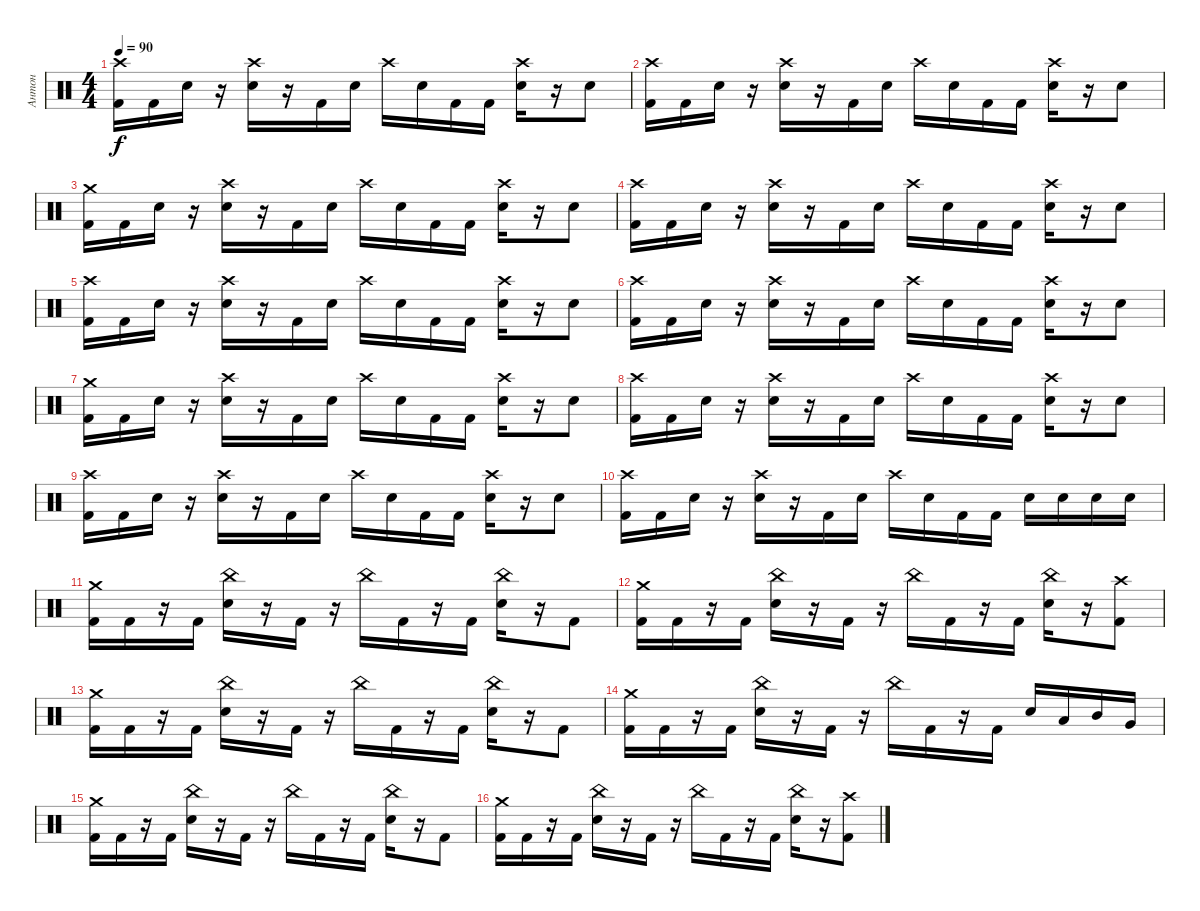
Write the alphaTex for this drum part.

\track ("Антон" "Антон") {instrument percussion}
\staff {score}
\articulation defaults
\ts (4 4)
\tempo 90
\clef neutral
\ks c
("Crash high (hit)" "Kick (hit) 2").16{dy f} "Kick (hit) 2".16 "Electric Snare (hit)".16 r.16 ("Crash high (hit)" "Electric Snare (hit)").16 r.16 "Kick (hit) 2".16 "Electric Snare (hit)".16 "Crash high (hit)".16 "Electric Snare (hit)".16 "Kick (hit) 2".16 "Kick (hit) 2".16 ("Crash high (hit)" "Electric Snare (hit)").16 r.16 "Electric Snare (hit)".8 |
("Crash high (hit)" "Kick (hit) 2").16 "Kick (hit) 2".16 "Electric Snare (hit)".16 r.16 ("Crash high (hit)" "Electric Snare (hit)").16 r.16 "Kick (hit) 2".16 "Electric Snare (hit)".16 "Crash high (hit)".16 "Electric Snare (hit)".16 "Kick (hit) 2".16 "Kick (hit) 2".16 ("Crash high (hit)" "Electric Snare (hit)").16 r.16 "Electric Snare (hit)".8 |
("Crash medium (hit)" "Kick (hit) 2").16 "Kick (hit) 2".16 "Electric Snare (hit)".16 r.16 ("Crash high (hit)" "Electric Snare (hit)").16 r.16 "Kick (hit) 2".16 "Electric Snare (hit)".16 "Crash high (hit)".16 "Electric Snare (hit)".16 "Kick (hit) 2".16 "Kick (hit) 2".16 ("Crash high (hit)" "Electric Snare (hit)").16 r.16 "Electric Snare (hit)".8 |
("Crash high (hit)" "Kick (hit) 2").16 "Kick (hit) 2".16 "Electric Snare (hit)".16 r.16 ("Crash high (hit)" "Electric Snare (hit)").16 r.16 "Kick (hit) 2".16 "Electric Snare (hit)".16 "Crash high (hit)".16 "Electric Snare (hit)".16 "Kick (hit) 2".16 "Kick (hit) 2".16 ("Crash high (hit)" "Electric Snare (hit)").16 r.16 "Electric Snare (hit)".8 |
("Crash high (hit)" "Kick (hit) 2").16 "Kick (hit) 2".16 "Electric Snare (hit)".16 r.16 ("Crash high (hit)" "Electric Snare (hit)").16 r.16 "Kick (hit) 2".16 "Electric Snare (hit)".16 "Crash high (hit)".16 "Electric Snare (hit)".16 "Kick (hit) 2".16 "Kick (hit) 2".16 ("Crash high (hit)" "Electric Snare (hit)").16 r.16 "Electric Snare (hit)".8 |
("Crash high (hit)" "Kick (hit) 2").16 "Kick (hit) 2".16 "Electric Snare (hit)".16 r.16 ("Crash high (hit)" "Electric Snare (hit)").16 r.16 "Kick (hit) 2".16 "Electric Snare (hit)".16 "Crash high (hit)".16 "Electric Snare (hit)".16 "Kick (hit) 2".16 "Kick (hit) 2".16 ("Crash high (hit)" "Electric Snare (hit)").16 r.16 "Electric Snare (hit)".8 |
("Crash medium (hit)" "Kick (hit) 2").16 "Kick (hit) 2".16 "Electric Snare (hit)".16 r.16 ("Crash high (hit)" "Electric Snare (hit)").16 r.16 "Kick (hit) 2".16 "Electric Snare (hit)".16 "Crash high (hit)".16 "Electric Snare (hit)".16 "Kick (hit) 2".16 "Kick (hit) 2".16 ("Crash high (hit)" "Electric Snare (hit)").16 r.16 "Electric Snare (hit)".8 |
("Crash high (hit)" "Kick (hit) 2").16 "Kick (hit) 2".16 "Electric Snare (hit)".16 r.16 ("Crash high (hit)" "Electric Snare (hit)").16 r.16 "Kick (hit) 2".16 "Electric Snare (hit)".16 "Crash high (hit)".16 "Electric Snare (hit)".16 "Kick (hit) 2".16 "Kick (hit) 2".16 ("Crash high (hit)" "Electric Snare (hit)").16 r.16 "Electric Snare (hit)".8 |
("Crash high (hit)" "Kick (hit) 2").16 "Kick (hit) 2".16 "Electric Snare (hit)".16 r.16 ("Crash high (hit)" "Electric Snare (hit)").16 r.16 "Kick (hit) 2".16 "Electric Snare (hit)".16 "Crash high (hit)".16 "Electric Snare (hit)".16 "Kick (hit) 2".16 "Kick (hit) 2".16 ("Crash high (hit)" "Electric Snare (hit)").16 r.16 "Electric Snare (hit)".8 |
("Crash high (hit)" "Kick (hit) 2").16 "Kick (hit) 2".16 "Electric Snare (hit)".16 r.16 ("Crash high (hit)" "Electric Snare (hit)").16 r.16 "Kick (hit) 2".16 "Electric Snare (hit)".16 "Crash high (hit)".16 "Electric Snare (hit)".16 "Kick (hit) 2".16 "Kick (hit) 2".16 "Electric Snare (hit)".16 "Electric Snare (hit)".16 "Electric Snare (hit)".16 "Electric Snare (hit)".16 |
("Crash medium (hit)" "Kick (hit) 2").16 "Kick (hit) 2".16 r.16 "Kick (hit) 2".16 ("China (hit)" "Electric Snare (hit)").16 r.16 "Kick (hit) 2".16 r.16 "China (hit)".16 "Kick (hit) 2".16 r.16 "Kick (hit) 2".16 ("China (hit)" "Electric Snare (hit)").16 r.16 "Kick (hit) 2".8 |
("Crash medium (hit)" "Kick (hit) 2").16 "Kick (hit) 2".16 r.16 "Kick (hit) 2".16 ("China (hit)" "Electric Snare (hit)").16 r.16 "Kick (hit) 2".16 r.16 "China (hit)".16 "Kick (hit) 2".16 r.16 "Kick (hit) 2".16 ("China (hit)" "Electric Snare (hit)").16 r.16 ("Crash high (hit)" "Kick (hit) 2").8 |
("Crash medium (hit)" "Kick (hit) 2").16 "Kick (hit) 2".16 r.16 "Kick (hit) 2".16 ("China (hit)" "Electric Snare (hit)").16 r.16 "Kick (hit) 2".16 r.16 "China (hit)".16 "Kick (hit) 2".16 r.16 "Kick (hit) 2".16 ("China (hit)" "Electric Snare (hit)").16 r.16 "Kick (hit) 2".8 |
("Crash medium (hit)" "Kick (hit) 2").16 "Kick (hit) 2".16 r.16 "Kick (hit) 2".16 ("China (hit)" "Electric Snare (hit)").16 r.16 "Kick (hit) 2".16 r.16 "China (hit)".16 "Kick (hit) 2".16 r.16 "Kick (hit) 2".16 "Electric Snare (hit)".16 "Low Tom (hit)".16 "Mid Tom (hit)".16 "Very Low Tom (hit)".16 |
("Crash medium (hit)" "Kick (hit) 2").16 "Kick (hit) 2".16 r.16 "Kick (hit) 2".16 ("China (hit)" "Electric Snare (hit)").16 r.16 "Kick (hit) 2".16 r.16 "China (hit)".16 "Kick (hit) 2".16 r.16 "Kick (hit) 2".16 ("China (hit)" "Electric Snare (hit)").16 r.16 "Kick (hit) 2".8 |
("Crash medium (hit)" "Kick (hit) 2").16 "Kick (hit) 2".16 r.16 "Kick (hit) 2".16 ("China (hit)" "Electric Snare (hit)").16 r.16 "Kick (hit) 2".16 r.16 "China (hit)".16 "Kick (hit) 2".16 r.16 "Kick (hit) 2".16 ("China (hit)" "Electric Snare (hit)").16 r.16 ("Crash high (hit)" "Kick (hit) 2").8
